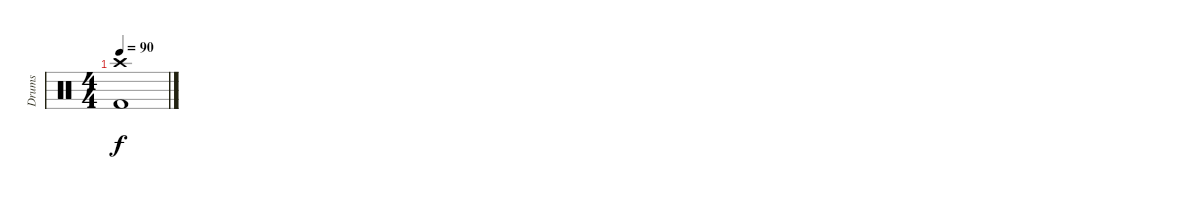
\track ("Drums" "Drums") {instrument percussion}
\staff {score}
\articulation defaults
\ts (4 4)
\tempo 90
\clef neutral
\ks c
("Crash high (hit)" "Kick (hit) 2").1{dy f}
